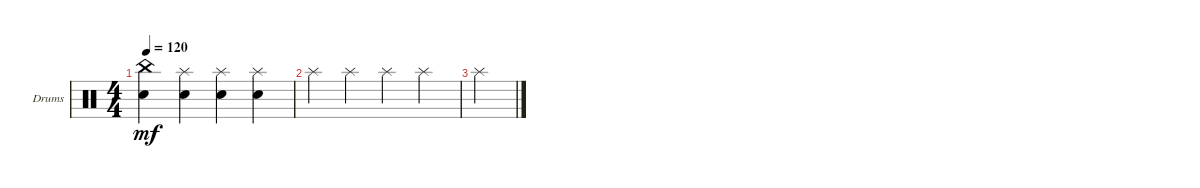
\defaultSystemsLayout 4
\bracketExtendMode groupsimilarinstruments
\firstSystemTrackNameOrientation horizontal
\otherSystemsTrackNameOrientation horizontal
\track ("Drumkit" "Drums") {mute instrument percussion}
\staff {score}
\articulation defaults
\ts (4 4)
\tempo 120
\clef neutral
\scale
0.472222
\ks c
("Snare (hit) 2" "China (hit)").4{dy mf} ("Snare (hit) 2" "Splash (hit)").4 ("Snare (hit) 2" "Splash (hit)").4 ("Snare (hit) 2" "Splash (hit)").4 |
\scale
0.263889 "Splash (hit)".4 "Splash (hit)".4 "Splash (hit)".4 "Splash (hit)".4 |
\scale
0.263889 "Splash (hit)".4 |
\scale
0.333333 |
\scale
0.333333 |
\scale
0.333333 |
\scale
0.333333 |
\scale
0.333333 |
\scale
0.333333 |
\scale
0.333333 |
\scale
0.333333 |
\scale
0.333333 |
\scale
0.333333 |
\scale
0.333333 |
\scale
0.333333 |
\scale
0.311475
